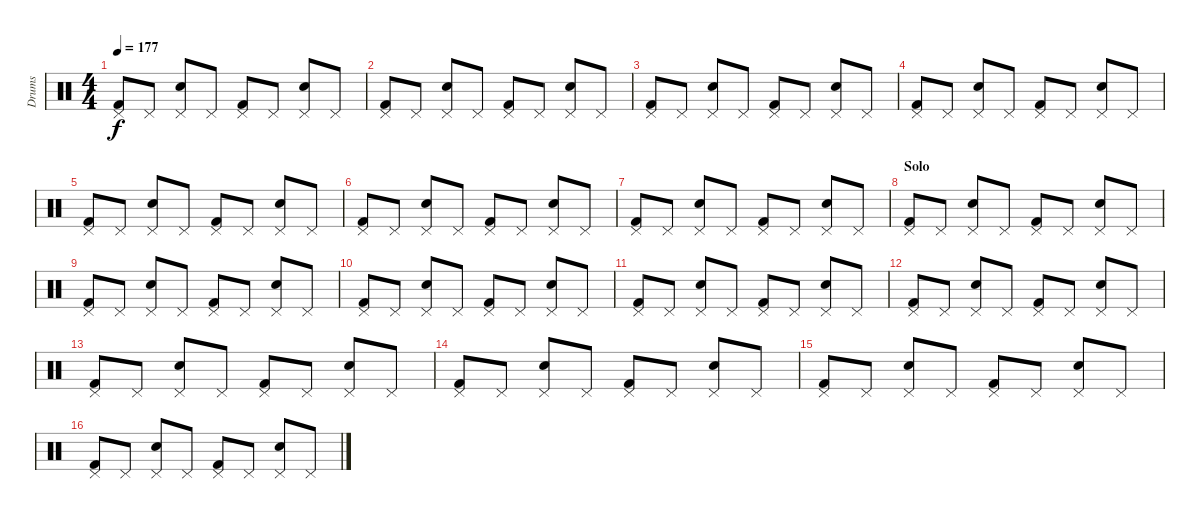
\track ("Drums" "Drums") {instrument percussion}
\staff {score}
\articulation defaults
\ts (4 4)
\tempo 177
\clef neutral
\ks c
("Pedal Hi-Hat (hit)" "Kick (hit) 2").8{dy f} "Pedal Hi-Hat (hit)".8 ("Pedal Hi-Hat (hit)" "Electric Snare (hit)").8 "Pedal Hi-Hat (hit)".8 ("Pedal Hi-Hat (hit)" "Kick (hit) 2").8 "Pedal Hi-Hat (hit)".8 ("Pedal Hi-Hat (hit)" "Electric Snare (hit)").8 "Pedal Hi-Hat (hit)".8 |
("Pedal Hi-Hat (hit)" "Kick (hit) 2").8 "Pedal Hi-Hat (hit)".8 ("Pedal Hi-Hat (hit)" "Electric Snare (hit)").8 "Pedal Hi-Hat (hit)".8 ("Pedal Hi-Hat (hit)" "Kick (hit) 2").8 "Pedal Hi-Hat (hit)".8 ("Pedal Hi-Hat (hit)" "Electric Snare (hit)").8 "Pedal Hi-Hat (hit)".8 |
("Pedal Hi-Hat (hit)" "Kick (hit) 2").8 "Pedal Hi-Hat (hit)".8 ("Pedal Hi-Hat (hit)" "Electric Snare (hit)").8 "Pedal Hi-Hat (hit)".8 ("Pedal Hi-Hat (hit)" "Kick (hit) 2").8 "Pedal Hi-Hat (hit)".8 ("Pedal Hi-Hat (hit)" "Electric Snare (hit)").8 "Pedal Hi-Hat (hit)".8 |
("Pedal Hi-Hat (hit)" "Kick (hit) 2").8 "Pedal Hi-Hat (hit)".8 ("Pedal Hi-Hat (hit)" "Electric Snare (hit)").8 "Pedal Hi-Hat (hit)".8 ("Pedal Hi-Hat (hit)" "Kick (hit) 2").8 "Pedal Hi-Hat (hit)".8 ("Pedal Hi-Hat (hit)" "Electric Snare (hit)").8 "Pedal Hi-Hat (hit)".8 |
("Pedal Hi-Hat (hit)" "Kick (hit) 2").8 "Pedal Hi-Hat (hit)".8 ("Pedal Hi-Hat (hit)" "Electric Snare (hit)").8 "Pedal Hi-Hat (hit)".8 ("Pedal Hi-Hat (hit)" "Kick (hit) 2").8 "Pedal Hi-Hat (hit)".8 ("Pedal Hi-Hat (hit)" "Electric Snare (hit)").8 "Pedal Hi-Hat (hit)".8 |
("Pedal Hi-Hat (hit)" "Kick (hit) 2").8 "Pedal Hi-Hat (hit)".8 ("Pedal Hi-Hat (hit)" "Electric Snare (hit)").8 "Pedal Hi-Hat (hit)".8 ("Pedal Hi-Hat (hit)" "Kick (hit) 2").8 "Pedal Hi-Hat (hit)".8 ("Pedal Hi-Hat (hit)" "Electric Snare (hit)").8 "Pedal Hi-Hat (hit)".8 |
("Pedal Hi-Hat (hit)" "Kick (hit) 2").8 "Pedal Hi-Hat (hit)".8 ("Pedal Hi-Hat (hit)" "Electric Snare (hit)").8 "Pedal Hi-Hat (hit)".8 ("Pedal Hi-Hat (hit)" "Kick (hit) 2").8 "Pedal Hi-Hat (hit)".8 ("Pedal Hi-Hat (hit)" "Electric Snare (hit)").8 "Pedal Hi-Hat (hit)".8 |
\section ("" "Solo")
("Pedal Hi-Hat (hit)" "Kick (hit) 2").8 "Pedal Hi-Hat (hit)".8 ("Pedal Hi-Hat (hit)" "Electric Snare (hit)").8 "Pedal Hi-Hat (hit)".8 ("Pedal Hi-Hat (hit)" "Kick (hit) 2").8 "Pedal Hi-Hat (hit)".8 ("Pedal Hi-Hat (hit)" "Electric Snare (hit)").8 "Pedal Hi-Hat (hit)".8 |
("Pedal Hi-Hat (hit)" "Kick (hit) 2").8 "Pedal Hi-Hat (hit)".8 ("Pedal Hi-Hat (hit)" "Electric Snare (hit)").8 "Pedal Hi-Hat (hit)".8 ("Pedal Hi-Hat (hit)" "Kick (hit) 2").8 "Pedal Hi-Hat (hit)".8 ("Pedal Hi-Hat (hit)" "Electric Snare (hit)").8 "Pedal Hi-Hat (hit)".8 |
("Pedal Hi-Hat (hit)" "Kick (hit) 2").8 "Pedal Hi-Hat (hit)".8 ("Pedal Hi-Hat (hit)" "Electric Snare (hit)").8 "Pedal Hi-Hat (hit)".8 ("Pedal Hi-Hat (hit)" "Kick (hit) 2").8 "Pedal Hi-Hat (hit)".8 ("Pedal Hi-Hat (hit)" "Electric Snare (hit)").8 "Pedal Hi-Hat (hit)".8 |
("Pedal Hi-Hat (hit)" "Kick (hit) 2").8 "Pedal Hi-Hat (hit)".8 ("Pedal Hi-Hat (hit)" "Electric Snare (hit)").8 "Pedal Hi-Hat (hit)".8 ("Pedal Hi-Hat (hit)" "Kick (hit) 2").8 "Pedal Hi-Hat (hit)".8 ("Pedal Hi-Hat (hit)" "Electric Snare (hit)").8 "Pedal Hi-Hat (hit)".8 |
("Pedal Hi-Hat (hit)" "Kick (hit) 2").8 "Pedal Hi-Hat (hit)".8 ("Pedal Hi-Hat (hit)" "Electric Snare (hit)").8 "Pedal Hi-Hat (hit)".8 ("Pedal Hi-Hat (hit)" "Kick (hit) 2").8 "Pedal Hi-Hat (hit)".8 ("Pedal Hi-Hat (hit)" "Electric Snare (hit)").8 "Pedal Hi-Hat (hit)".8 |
("Pedal Hi-Hat (hit)" "Kick (hit) 2").8 "Pedal Hi-Hat (hit)".8 ("Pedal Hi-Hat (hit)" "Electric Snare (hit)").8 "Pedal Hi-Hat (hit)".8 ("Pedal Hi-Hat (hit)" "Kick (hit) 2").8 "Pedal Hi-Hat (hit)".8 ("Pedal Hi-Hat (hit)" "Electric Snare (hit)").8 "Pedal Hi-Hat (hit)".8 |
("Pedal Hi-Hat (hit)" "Kick (hit) 2").8 "Pedal Hi-Hat (hit)".8 ("Pedal Hi-Hat (hit)" "Electric Snare (hit)").8 "Pedal Hi-Hat (hit)".8 ("Pedal Hi-Hat (hit)" "Kick (hit) 2").8 "Pedal Hi-Hat (hit)".8 ("Pedal Hi-Hat (hit)" "Electric Snare (hit)").8 "Pedal Hi-Hat (hit)".8 |
("Pedal Hi-Hat (hit)" "Kick (hit) 2").8 "Pedal Hi-Hat (hit)".8 ("Pedal Hi-Hat (hit)" "Electric Snare (hit)").8 "Pedal Hi-Hat (hit)".8 ("Pedal Hi-Hat (hit)" "Kick (hit) 2").8 "Pedal Hi-Hat (hit)".8 ("Pedal Hi-Hat (hit)" "Electric Snare (hit)").8 "Pedal Hi-Hat (hit)".8 |
("Pedal Hi-Hat (hit)" "Kick (hit) 2").8 "Pedal Hi-Hat (hit)".8 ("Pedal Hi-Hat (hit)" "Electric Snare (hit)").8 "Pedal Hi-Hat (hit)".8 ("Pedal Hi-Hat (hit)" "Kick (hit) 2").8 "Pedal Hi-Hat (hit)".8 ("Pedal Hi-Hat (hit)" "Electric Snare (hit)").8 "Pedal Hi-Hat (hit)".8
